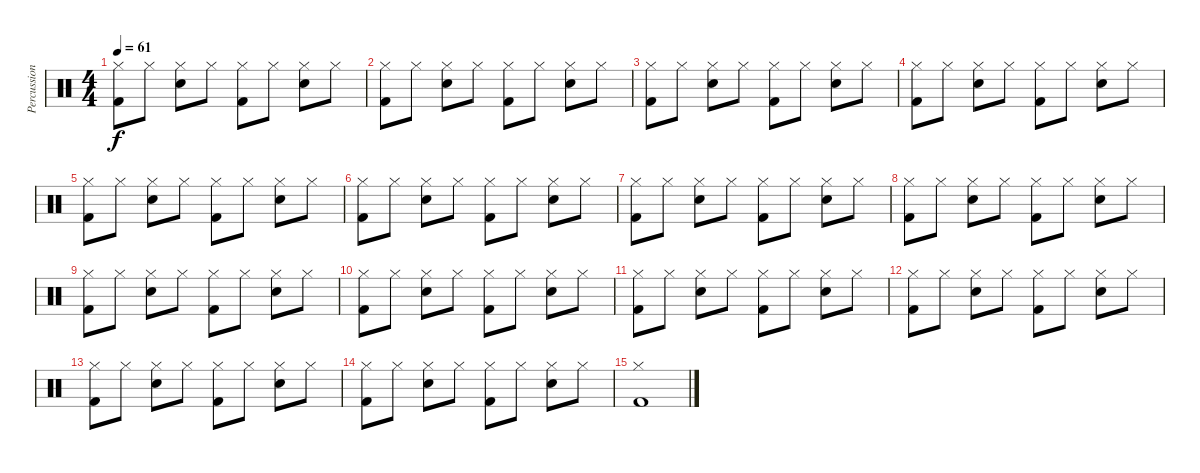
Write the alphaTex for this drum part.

\track ("Percussion" "Percussion") {instrument percussion}
\staff {score}
\articulation defaults
\ts (4 4)
\tempo 61
\clef neutral
\ks c
("Hi-Hat (closed)" "Kick (hit) 2").8{dy f} "Hi-Hat (closed)".8 ("Hi-Hat (closed)" "Electric Snare (hit)").8 "Hi-Hat (closed)".8 ("Hi-Hat (closed)" "Kick (hit) 2").8 "Hi-Hat (closed)".8 ("Hi-Hat (closed)" "Electric Snare (hit)").8 "Hi-Hat (closed)".8 |
("Hi-Hat (closed)" "Kick (hit) 2").8 "Hi-Hat (closed)".8 ("Hi-Hat (closed)" "Electric Snare (hit)").8 "Hi-Hat (closed)".8 ("Hi-Hat (closed)" "Kick (hit) 2").8 "Hi-Hat (closed)".8 ("Hi-Hat (closed)" "Electric Snare (hit)").8 "Hi-Hat (closed)".8 |
("Hi-Hat (closed)" "Kick (hit) 2").8 "Hi-Hat (closed)".8 ("Hi-Hat (closed)" "Electric Snare (hit)").8 "Hi-Hat (closed)".8 ("Hi-Hat (closed)" "Kick (hit) 2").8 "Hi-Hat (closed)".8 ("Hi-Hat (closed)" "Electric Snare (hit)").8 "Hi-Hat (closed)".8 |
("Hi-Hat (closed)" "Kick (hit) 2").8 "Hi-Hat (closed)".8 ("Hi-Hat (closed)" "Electric Snare (hit)").8 "Hi-Hat (closed)".8 ("Hi-Hat (closed)" "Kick (hit) 2").8 "Hi-Hat (closed)".8 ("Hi-Hat (closed)" "Electric Snare (hit)").8 "Hi-Hat (closed)".8 |
("Hi-Hat (closed)" "Kick (hit) 2").8 "Hi-Hat (closed)".8 ("Hi-Hat (closed)" "Electric Snare (hit)").8 "Hi-Hat (closed)".8 ("Hi-Hat (closed)" "Kick (hit) 2").8 "Hi-Hat (closed)".8 ("Hi-Hat (closed)" "Electric Snare (hit)").8 "Hi-Hat (closed)".8 |
("Hi-Hat (closed)" "Kick (hit) 2").8 "Hi-Hat (closed)".8 ("Hi-Hat (closed)" "Electric Snare (hit)").8 "Hi-Hat (closed)".8 ("Hi-Hat (closed)" "Kick (hit) 2").8 "Hi-Hat (closed)".8 ("Hi-Hat (closed)" "Electric Snare (hit)").8 "Hi-Hat (closed)".8 |
("Hi-Hat (closed)" "Kick (hit) 2").8 "Hi-Hat (closed)".8 ("Hi-Hat (closed)" "Electric Snare (hit)").8 "Hi-Hat (closed)".8 ("Hi-Hat (closed)" "Kick (hit) 2").8 "Hi-Hat (closed)".8 ("Hi-Hat (closed)" "Electric Snare (hit)").8 "Hi-Hat (closed)".8 |
("Hi-Hat (closed)" "Kick (hit) 2").8 "Hi-Hat (closed)".8 ("Hi-Hat (closed)" "Electric Snare (hit)").8 "Hi-Hat (closed)".8 ("Hi-Hat (closed)" "Kick (hit) 2").8 "Hi-Hat (closed)".8 ("Hi-Hat (closed)" "Electric Snare (hit)").8 "Hi-Hat (closed)".8 |
("Hi-Hat (closed)" "Kick (hit) 2").8 "Hi-Hat (closed)".8 ("Hi-Hat (closed)" "Electric Snare (hit)").8 "Hi-Hat (closed)".8 ("Hi-Hat (closed)" "Kick (hit) 2").8 "Hi-Hat (closed)".8 ("Hi-Hat (closed)" "Electric Snare (hit)").8 "Hi-Hat (closed)".8 |
("Hi-Hat (closed)" "Kick (hit) 2").8 "Hi-Hat (closed)".8 ("Hi-Hat (closed)" "Electric Snare (hit)").8 "Hi-Hat (closed)".8 ("Hi-Hat (closed)" "Kick (hit) 2").8 "Hi-Hat (closed)".8 ("Hi-Hat (closed)" "Electric Snare (hit)").8 "Hi-Hat (closed)".8 |
("Hi-Hat (closed)" "Kick (hit) 2").8 "Hi-Hat (closed)".8 ("Hi-Hat (closed)" "Electric Snare (hit)").8 "Hi-Hat (closed)".8 ("Hi-Hat (closed)" "Kick (hit) 2").8 "Hi-Hat (closed)".8 ("Hi-Hat (closed)" "Electric Snare (hit)").8 "Hi-Hat (closed)".8 |
("Hi-Hat (closed)" "Kick (hit) 2").8 "Hi-Hat (closed)".8 ("Hi-Hat (closed)" "Electric Snare (hit)").8 "Hi-Hat (closed)".8 ("Hi-Hat (closed)" "Kick (hit) 2").8 "Hi-Hat (closed)".8 ("Hi-Hat (closed)" "Electric Snare (hit)").8 "Hi-Hat (closed)".8 |
("Hi-Hat (closed)" "Kick (hit) 2").8 "Hi-Hat (closed)".8 ("Hi-Hat (closed)" "Electric Snare (hit)").8 "Hi-Hat (closed)".8 ("Hi-Hat (closed)" "Kick (hit) 2").8 "Hi-Hat (closed)".8 ("Hi-Hat (closed)" "Electric Snare (hit)").8 "Hi-Hat (closed)".8 |
("Hi-Hat (closed)" "Kick (hit) 2").8 "Hi-Hat (closed)".8 ("Hi-Hat (closed)" "Electric Snare (hit)").8 "Hi-Hat (closed)".8 ("Hi-Hat (closed)" "Kick (hit) 2").8 "Hi-Hat (closed)".8 ("Hi-Hat (closed)" "Electric Snare (hit)").8 "Hi-Hat (closed)".8 |
("Hi-Hat (closed)" "Kick (hit) 2").1
